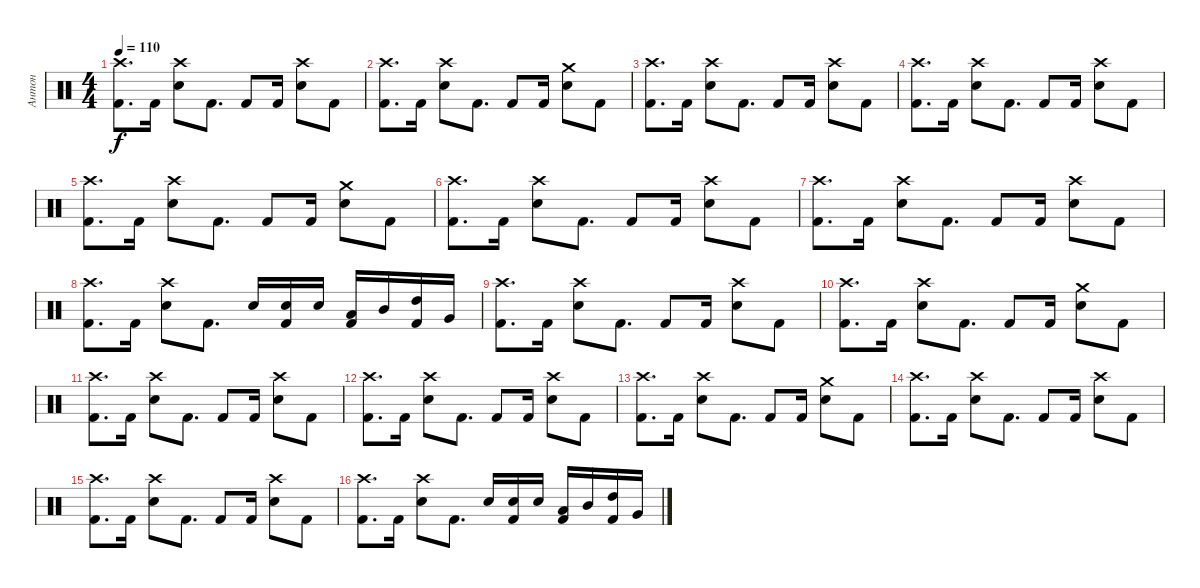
\track ("Антон" "Антон") {instrument percussion}
\staff {score}
\articulation defaults
\ts (4 4)
\tempo 110
\clef neutral
\ks c
("Crash high (hit)" "Kick (hit) 2").8{d dy f} "Kick (hit) 2".16 ("Crash high (hit)" "Electric Snare (hit)").8 "Kick (hit) 2".8{d} "Kick (hit) 2".8 "Kick (hit) 2".16 ("Crash high (hit)" "Electric Snare (hit)").8 "Kick (hit) 2".8 |
("Crash high (hit)" "Kick (hit) 2").8{d} "Kick (hit) 2".16 ("Crash high (hit)" "Electric Snare (hit)").8 "Kick (hit) 2".8{d} "Kick (hit) 2".8 "Kick (hit) 2".16 ("Crash medium (hit)" "Electric Snare (hit)").8 "Kick (hit) 2".8 |
("Crash high (hit)" "Kick (hit) 2").8{d} "Kick (hit) 2".16 ("Crash high (hit)" "Electric Snare (hit)").8 "Kick (hit) 2".8{d} "Kick (hit) 2".8 "Kick (hit) 2".16 ("Crash high (hit)" "Electric Snare (hit)").8 "Kick (hit) 2".8 |
("Crash high (hit)" "Kick (hit) 2").8{d} "Kick (hit) 2".16 ("Crash high (hit)" "Electric Snare (hit)").8 "Kick (hit) 2".8{d} "Kick (hit) 2".8 "Kick (hit) 2".16 ("Crash high (hit)" "Electric Snare (hit)").8 "Kick (hit) 2".8 |
("Crash high (hit)" "Kick (hit) 2").8{d} "Kick (hit) 2".16 ("Crash high (hit)" "Electric Snare (hit)").8 "Kick (hit) 2".8{d} "Kick (hit) 2".8 "Kick (hit) 2".16 ("Crash medium (hit)" "Electric Snare (hit)").8 "Kick (hit) 2".8 |
("Crash high (hit)" "Kick (hit) 2").8{d} "Kick (hit) 2".16 ("Crash high (hit)" "Electric Snare (hit)").8 "Kick (hit) 2".8{d} "Kick (hit) 2".8 "Kick (hit) 2".16 ("Crash high (hit)" "Electric Snare (hit)").8 "Kick (hit) 2".8 |
("Crash high (hit)" "Kick (hit) 2").8{d} "Kick (hit) 2".16 ("Crash high (hit)" "Electric Snare (hit)").8 "Kick (hit) 2".8{d} "Kick (hit) 2".8 "Kick (hit) 2".16 ("Crash high (hit)" "Electric Snare (hit)").8 "Kick (hit) 2".8 |
("Crash high (hit)" "Kick (hit) 2").8{d} "Kick (hit) 2".16 ("Crash high (hit)" "Electric Snare (hit)").8 "Kick (hit) 2".8{d} "Electric Snare (hit)".16 ("Electric Snare (hit)" "Kick (hit) 2").16 "Electric Snare (hit)".16 ("Low Tom (hit)" "Kick (hit) 2").16 "Mid Tom (hit)".16 ("High Tom (hit)" "Kick (hit) 2").16 "Very Low Tom (hit)".16 |
("Crash high (hit)" "Kick (hit) 2").8{d} "Kick (hit) 2".16 ("Crash high (hit)" "Electric Snare (hit)").8 "Kick (hit) 2".8{d} "Kick (hit) 2".8 "Kick (hit) 2".16 ("Crash high (hit)" "Electric Snare (hit)").8 "Kick (hit) 2".8 |
("Crash high (hit)" "Kick (hit) 2").8{d} "Kick (hit) 2".16 ("Crash high (hit)" "Electric Snare (hit)").8 "Kick (hit) 2".8{d} "Kick (hit) 2".8 "Kick (hit) 2".16 ("Crash medium (hit)" "Electric Snare (hit)").8 "Kick (hit) 2".8 |
("Crash high (hit)" "Kick (hit) 2").8{d} "Kick (hit) 2".16 ("Crash high (hit)" "Electric Snare (hit)").8 "Kick (hit) 2".8{d} "Kick (hit) 2".8 "Kick (hit) 2".16 ("Crash high (hit)" "Electric Snare (hit)").8 "Kick (hit) 2".8 |
("Crash high (hit)" "Kick (hit) 2").8{d} "Kick (hit) 2".16 ("Crash high (hit)" "Electric Snare (hit)").8 "Kick (hit) 2".8{d} "Kick (hit) 2".8 "Kick (hit) 2".16 ("Crash high (hit)" "Electric Snare (hit)").8 "Kick (hit) 2".8 |
("Crash high (hit)" "Kick (hit) 2").8{d} "Kick (hit) 2".16 ("Crash high (hit)" "Electric Snare (hit)").8 "Kick (hit) 2".8{d} "Kick (hit) 2".8 "Kick (hit) 2".16 ("Crash medium (hit)" "Electric Snare (hit)").8 "Kick (hit) 2".8 |
("Crash high (hit)" "Kick (hit) 2").8{d} "Kick (hit) 2".16 ("Crash high (hit)" "Electric Snare (hit)").8 "Kick (hit) 2".8{d} "Kick (hit) 2".8 "Kick (hit) 2".16 ("Crash high (hit)" "Electric Snare (hit)").8 "Kick (hit) 2".8 |
("Crash high (hit)" "Kick (hit) 2").8{d} "Kick (hit) 2".16 ("Crash high (hit)" "Electric Snare (hit)").8 "Kick (hit) 2".8{d} "Kick (hit) 2".8 "Kick (hit) 2".16 ("Crash high (hit)" "Electric Snare (hit)").8 "Kick (hit) 2".8 |
("Crash high (hit)" "Kick (hit) 2").8{d} "Kick (hit) 2".16 ("Crash high (hit)" "Electric Snare (hit)").8 "Kick (hit) 2".8{d} "Electric Snare (hit)".16 ("Electric Snare (hit)" "Kick (hit) 2").16 "Electric Snare (hit)".16 ("Low Tom (hit)" "Kick (hit) 2").16 "Mid Tom (hit)".16 ("High Tom (hit)" "Kick (hit) 2").16 "Very Low Tom (hit)".16
